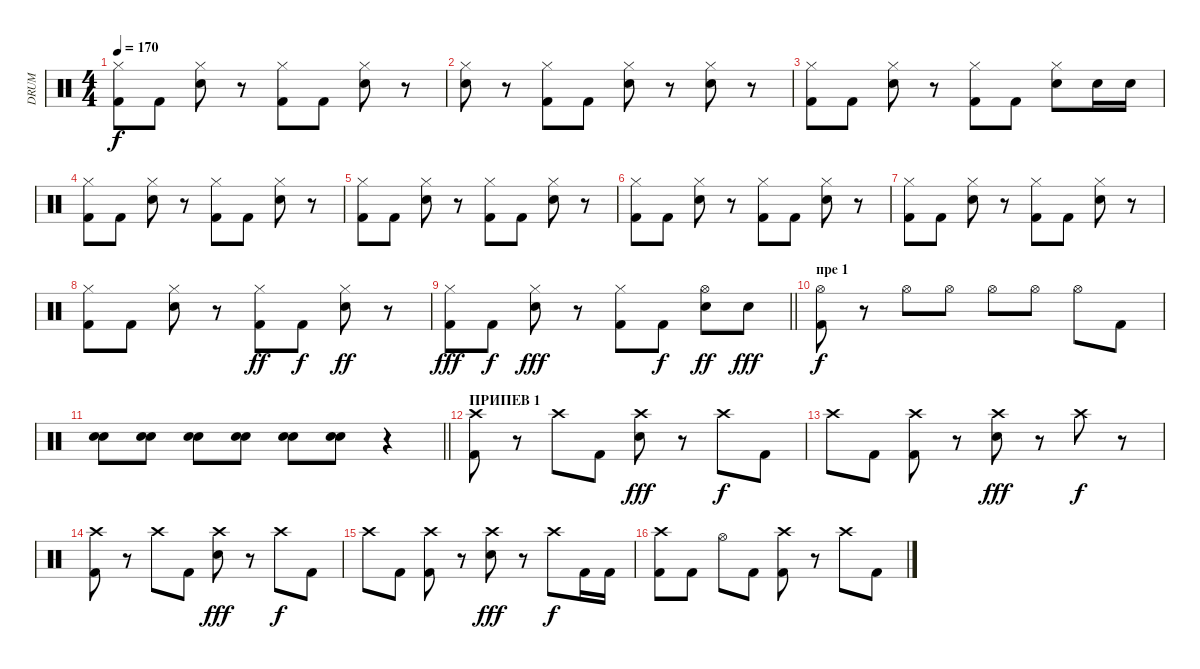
\track ("DRUM" "DRUM") {instrument percussion}
\staff {score}
\articulation defaults
\ts (4 4)
\tempo 170
\clef neutral
\ks c
("Hi-Hat (closed)" "Kick (hit) 2").8{dy f} "Kick (hit) 2".8 ("Hi-Hat (closed)" "Snare (hit) 2").8 r.8 ("Hi-Hat (closed)" "Kick (hit) 2").8 "Kick (hit) 2".8 ("Hi-Hat (closed)" "Snare (hit) 2").8 r.8 |
("Hi-Hat (closed)" "Snare (hit) 2").8 r.8 ("Hi-Hat (closed)" "Kick (hit) 2").8 "Kick (hit) 2".8 ("Hi-Hat (closed)" "Snare (hit) 2").8 r.8 ("Hi-Hat (closed)" "Snare (hit) 2").8 r.8 |
("Hi-Hat (closed)" "Kick (hit) 2").8 "Kick (hit) 2".8 ("Hi-Hat (closed)" "Snare (hit) 2").8 r.8 ("Hi-Hat (closed)" "Kick (hit) 2").8 "Kick (hit) 2".8 ("Hi-Hat (closed)" "Snare (hit) 2").8 "Snare (hit) 2".16 "Snare (hit) 2".16 |
("Hi-Hat (closed)" "Kick (hit) 2").8 "Kick (hit) 2".8 ("Hi-Hat (closed)" "Snare (hit) 2").8 r.8 ("Hi-Hat (closed)" "Kick (hit) 2").8 "Kick (hit) 2".8 ("Hi-Hat (closed)" "Snare (hit) 2").8 r.8 |
("Hi-Hat (closed)" "Kick (hit) 2").8 "Kick (hit) 2".8 ("Hi-Hat (closed)" "Snare (hit) 2").8 r.8 ("Kick (hit) 2" "Hi-Hat (closed)").8 "Kick (hit) 2".8 ("Snare (hit) 2" "Hi-Hat (closed)").8 r.8 |
("Hi-Hat (closed)" "Kick (hit) 2").8 "Kick (hit) 2".8 ("Hi-Hat (closed)" "Snare (hit) 2").8 r.8 ("Hi-Hat (closed)" "Kick (hit) 2").8 "Kick (hit) 2".8 ("Hi-Hat (closed)" "Snare (hit) 2").8 r.8 |
("Hi-Hat (closed)" "Kick (hit) 2").8 "Kick (hit) 2".8 ("Hi-Hat (closed)" "Snare (hit) 2").8 r.8 ("Kick (hit) 2" "Hi-Hat (closed)").8 "Kick (hit) 2".8 ("Snare (hit) 2" "Hi-Hat (closed)").8 r.8 |
("Hi-Hat (closed)" "Kick (hit) 2").8 "Kick (hit) 2".8 ("Hi-Hat (closed)" "Snare (hit) 2").8 r.8 ("Hi-Hat (closed)" "Kick (hit) 2").8{dy ff} "Kick (hit) 2".8{dy f} ("Hi-Hat (closed)" "Snare (hit) 2").8{dy ff} r.8 |
\barLineRight lightlight
("Hi-Hat (closed)" "Kick (hit) 2").8{dy fff} "Kick (hit) 2".8{dy f} ("Hi-Hat (closed)" "Snare (hit) 2").8{dy fff} r.8 ("Kick (hit) 2" "Hi-Hat (closed)").8 "Kick (hit) 2".8{dy f} ("Hi-Hat (open)" "Snare (hit) 2").8{dy ff} "Snare (hit) 2".8{dy fff} |
\section ("" "пре 1")
("Hi-Hat (open)" "Kick (hit) 2").8{dy f} r.8 "Hi-Hat (open)".8 "Hi-Hat (open)".8 "Hi-Hat (open)".8 "Hi-Hat (open)".8 "Hi-Hat (open)".8 "Kick (hit) 2".8 |
\barLineRight lightlight
("Snare (hit) 2" "Electric Snare (hit)").8 ("Snare (hit) 2" "Electric Snare (hit)").8 ("Snare (hit) 2" "Electric Snare (hit)").8 ("Snare (hit) 2" "Electric Snare (hit)").8 ("Snare (hit) 2" "Electric Snare (hit)").8 ("Snare (hit) 2" "Electric Snare (hit)").8 r.4 |
\section ("" "ПРИПЕВ 1")
("Crash high (hit)" "Kick (hit) 2").8 r.8 "Crash high (hit)".8 "Kick (hit) 2".8 ("Crash high (hit)" "Snare (hit) 2").8{dy fff} r.8 "Crash high (hit)".8{dy f} "Kick (hit) 2".8 |
"Crash high (hit)".8 "Kick (hit) 2".8 ("Crash high (hit)" "Kick (hit) 2").8 r.8 ("Crash high (hit)" "Snare (hit) 2").8{dy fff} r.8 "Crash high (hit)".8{dy f} r.8 |
("Crash high (hit)" "Kick (hit) 2").8 r.8 "Crash high (hit)".8 "Kick (hit) 2".8 ("Crash high (hit)" "Snare (hit) 2").8{dy fff} r.8 "Crash high (hit)".8{dy f} "Kick (hit) 2".8 |
"Crash high (hit)".8 "Kick (hit) 2".8 ("Crash high (hit)" "Kick (hit) 2").8 r.8 ("Crash high (hit)" "Snare (hit) 2").8{dy fff} r.8 "Crash high (hit)".8{dy f} "Kick (hit) 2".16 "Kick (hit) 2".16 |
("Crash high (hit)" "Kick (hit) 2").8 "Kick (hit) 2".8 "Hi-Hat (open)".8 "Kick (hit) 2".8 ("Kick (hit) 2" "Crash high (hit)").8 r.8 "Crash high (hit)".8 "Kick (hit) 2".8
